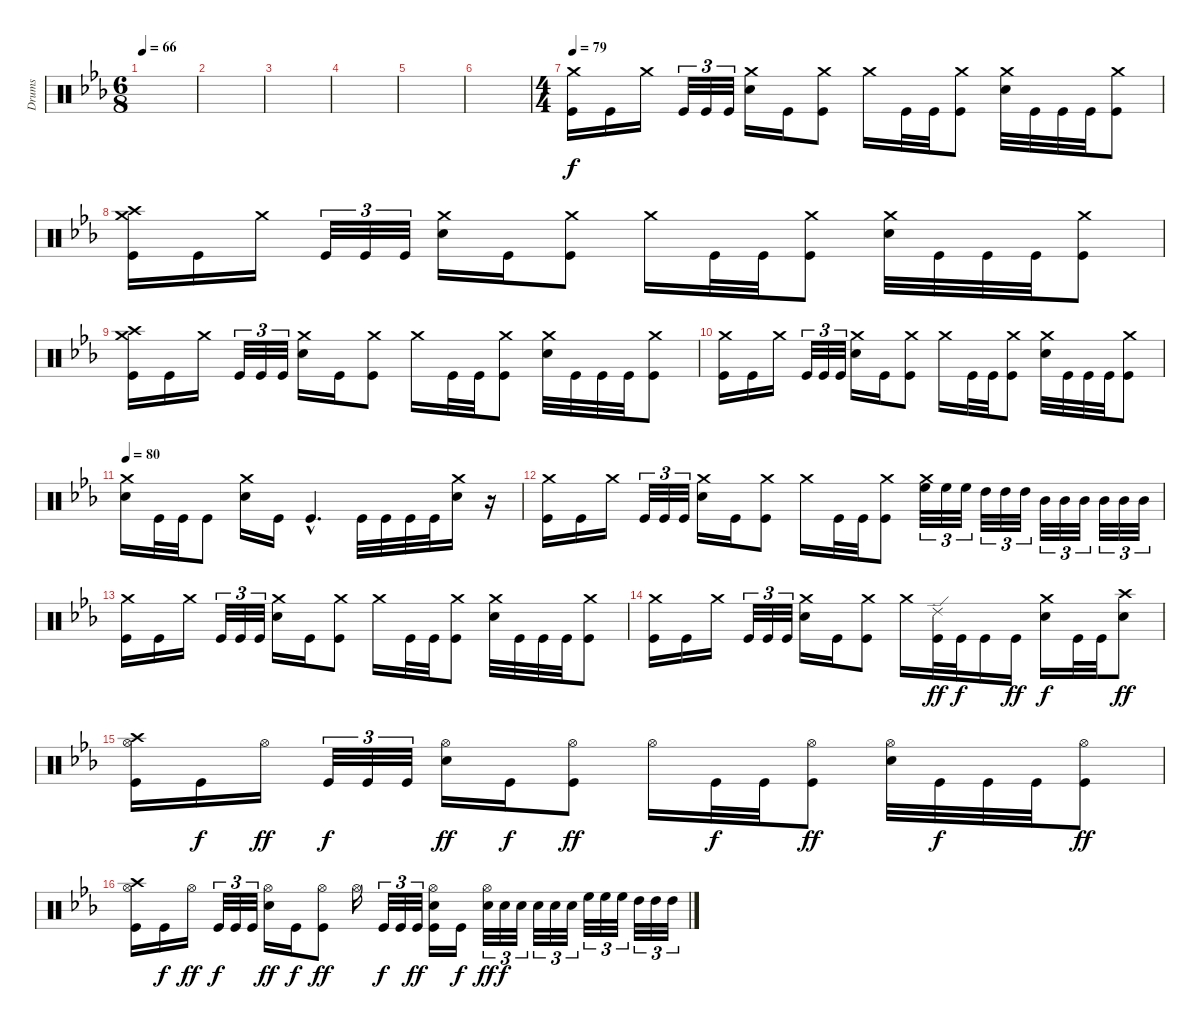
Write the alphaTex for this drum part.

\track ("Drums" "Drums") {instrument percussion}
\staff {score}
\articulation defaults
\ts (6 8)
\tempo 66
\clef neutral
\ks cminor
|
|
|
|
|
|
\ts (4 4)
\tempo 79
("Crash medium (hit)" "Kick (hit)").16 "Kick (hit)".16 "Crash medium (hit)".16 "Kick (hit)".32{tu (3 2)} "Kick (hit)".32{tu (3 2)} "Kick (hit)".32{tu (3 2)} ("Crash medium (hit)" "Electric Snare (hit)").16 "Kick (hit)".16 ("Crash medium (hit)" "Kick (hit)").8 "Crash medium (hit)".16 "Kick (hit)".32 "Kick (hit)".32 ("Crash medium (hit)" "Kick (hit)").8 ("Crash medium (hit)" "Electric Snare (hit)").32 "Kick (hit)".32 "Kick (hit)".32 "Kick (hit)".32 ("Crash medium (hit)" "Kick (hit)").8 |
("Crash medium (hit)" "Crash high (hit)" "Kick (hit)").16 "Kick (hit)".16 "Crash medium (hit)".16 "Kick (hit)".32{tu (3 2)} "Kick (hit)".32{tu (3 2)} "Kick (hit)".32{tu (3 2)} ("Crash medium (hit)" "Electric Snare (hit)").16 "Kick (hit)".16 ("Crash medium (hit)" "Kick (hit)").8 "Crash medium (hit)".16 "Kick (hit)".32 "Kick (hit)".32 ("Crash medium (hit)" "Kick (hit)").8 ("Crash medium (hit)" "Electric Snare (hit)").32 "Kick (hit)".32 "Kick (hit)".32 "Kick (hit)".32 ("Crash medium (hit)" "Kick (hit)").8 |
("Crash medium (hit)" "Crash high (hit)" "Kick (hit)").16 "Kick (hit)".16 "Crash medium (hit)".16 "Kick (hit)".32{tu (3 2)} "Kick (hit)".32{tu (3 2)} "Kick (hit)".32{tu (3 2)} ("Crash medium (hit)" "Electric Snare (hit)").16 "Kick (hit)".16 ("Crash medium (hit)" "Kick (hit)").8 "Crash medium (hit)".16 "Kick (hit)".32 "Kick (hit)".32 ("Crash medium (hit)" "Kick (hit)").8 ("Crash medium (hit)" "Electric Snare (hit)").32 "Kick (hit)".32 "Kick (hit)".32 "Kick (hit)".32 ("Crash medium (hit)" "Kick (hit)").8 |
("Crash medium (hit)" "Kick (hit)").16 "Kick (hit)".16 "Crash medium (hit)".16 "Kick (hit)".32{tu (3 2)} "Kick (hit)".32{tu (3 2)} "Kick (hit)".32{tu (3 2)} ("Crash medium (hit)" "Electric Snare (hit)").16 "Kick (hit)".16 ("Crash medium (hit)" "Kick (hit)").8 "Crash medium (hit)".16 "Kick (hit)".32 "Kick (hit)".32 ("Crash medium (hit)" "Kick (hit)").8 ("Crash medium (hit)" "Electric Snare (hit)").32 "Kick (hit)".32 "Kick (hit)".32 "Kick (hit)".32 ("Crash medium (hit)" "Kick (hit)").8 |
\tempo 80
("Crash medium (hit)" "Electric Snare (hit)").16 "Kick (hit)".32 "Kick (hit)".32 "Kick (hit)".8 ("Crash medium (hit)" "Electric Snare (hit)").16 "Kick (hit)".16 "Kick (hit)"{hac}.4{d} "Kick (hit)".32 "Kick (hit)".32 "Kick (hit)".32 "Kick (hit)".32 ("Crash medium (hit)" "Electric Snare (hit)").16 r.16 |
("Crash medium (hit)" "Kick (hit)").16 "Kick (hit)".16 "Crash medium (hit)".16 "Kick (hit)".32{tu (3 2)} "Kick (hit)".32{tu (3 2)} "Kick (hit)".32{tu (3 2)} ("Crash medium (hit)" "Electric Snare (hit)").16 "Kick (hit)".16 ("Crash medium (hit)" "Kick (hit)").8 "Crash medium (hit)".16 "Kick (hit)".32 "Kick (hit)".32 ("Crash medium (hit)" "Kick (hit)").8 ("Crash medium (hit)" "High Floor Tom (hit)").32{tu (3 2)} "High Floor Tom (hit)".32{tu (3 2)} "High Floor Tom (hit)".32{tu (3 2)} "High Tom (hit)".32{tu (3 2)} "High Tom (hit)".32{tu (3 2)} "High Tom (hit)".32{tu (3 2)} "Mid Tom (hit)".32{tu (3 2)} "Mid Tom (hit)".32{tu (3 2)} "Mid Tom (hit)".32{tu (3 2)} "Mid Tom (hit)".32{tu (3 2)} "Mid Tom (hit)".32{tu (3 2)} "Mid Tom (hit)".32{tu (3 2)} |
("Crash medium (hit)" "Kick (hit)").16 "Kick (hit)".16 "Crash medium (hit)".16 "Kick (hit)".32{tu (3 2)} "Kick (hit)".32{tu (3 2)} "Kick (hit)".32{tu (3 2)} ("Crash medium (hit)" "Electric Snare (hit)").16 "Kick (hit)".16 ("Crash medium (hit)" "Kick (hit)").8 "Crash medium (hit)".16 "Kick (hit)".32 "Kick (hit)".32 ("Crash medium (hit)" "Kick (hit)").8 ("Crash medium (hit)" "Electric Snare (hit)").32 "Kick (hit)".32 "Kick (hit)".32 "Kick (hit)".32 ("Crash medium (hit)" "Kick (hit)").8 |
("Crash medium (hit)" "Kick (hit)").16 "Kick (hit)".16 "Crash medium (hit)".16 "Kick (hit)".32{tu (3 2)} "Kick (hit)".32{tu (3 2)} "Kick (hit)".32{tu (3 2)} ("Crash medium (hit)" "Electric Snare (hit)").16 "Kick (hit)".16 ("Crash medium (hit)" "Kick (hit)").8 "Crash medium (hit)".16 ("Ride (edge) 2" "Kick (hit)").32{dy ff} "Kick (hit)".32{dy f} "Kick (hit)".16 "Kick (hit)".16{dy ff} ("Crash medium (hit)" "Electric Snare (hit)").16{dy f} "Kick (hit)".32 "Kick (hit)".32 ("Crash high (hit)" "Electric Snare (hit)").8{dy ff} |
("Crash high (hit)" "Hi-Hat (open)" "Kick (hit)").16 "Kick (hit)".16{dy f} "Hi-Hat (open)".16{dy ff} "Kick (hit)".32{tu (3 2) dy f} "Kick (hit)".32{tu (3 2)} "Kick (hit)".32{tu (3 2)} ("Hi-Hat (open)" "Electric Snare (hit)").16{dy ff} "Kick (hit)".16{dy f} ("Hi-Hat (open)" "Kick (hit)").8{dy ff} "Hi-Hat (open)".16 "Kick (hit)".32{dy f} "Kick (hit)".32 ("Hi-Hat (open)" "Kick (hit)").8{dy ff} ("Hi-Hat (open)" "Electric Snare (hit)").32 "Kick (hit)".32{dy f} "Kick (hit)".32 "Kick (hit)".32 ("Hi-Hat (open)" "Kick (hit)").8{dy ff} |
("Crash high (hit)" "Hi-Hat (open)" "Kick (hit)").16 "Kick (hit)".16{dy f} "Hi-Hat (open)".16{dy ff} "Kick (hit)".32{tu (3 2) dy f} "Kick (hit)".32{tu (3 2)} "Kick (hit)".32{tu (3 2)} ("Hi-Hat (open)" "Electric Snare (hit)").16{dy ff} "Kick (hit)".16{dy f} ("Hi-Hat (open)" "Kick (hit)").8{dy ff} "Hi-Hat (open)".16 "Kick (hit)".32{tu (3 2) dy f} "Kick (hit)".32{tu (3 2)} "Kick (hit)".32{tu (3 2) dy ff} ("Hi-Hat (open)" "Electric Snare (hit)" "Kick (hit)").16 "Kick (hit)".16{dy f} ("Hi-Hat (open)" "Electric Snare (hit)").32{tu (3 2) dy ff} "Electric Snare (hit)".32{tu (3 2) dy f} "Electric Snare (hit)".32{tu (3 2)} "Electric Snare (hit)".32{tu (3 2)} "Electric Snare (hit)".32{tu (3 2)} "Electric Snare (hit)".32{tu (3 2)} "High Floor Tom (hit)".32{tu (3 2)} "High Floor Tom (hit)".32{tu (3 2)} "High Floor Tom (hit)".32{tu (3 2)} "High Tom (hit)".32{tu (3 2)} "High Tom (hit)".32{tu (3 2)} "High Tom (hit)".32{tu (3 2)}
